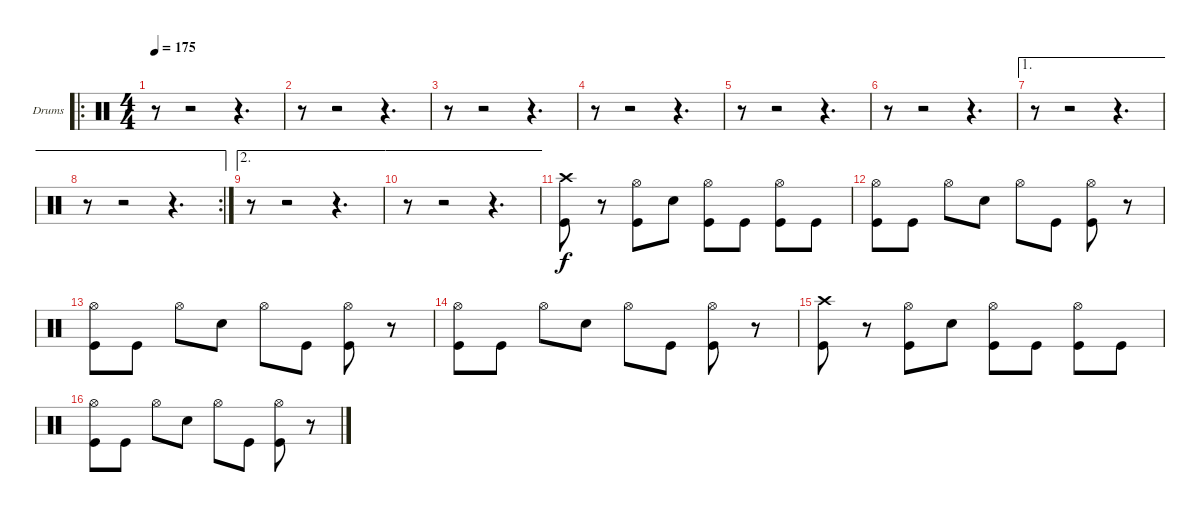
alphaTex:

\bracketExtendMode groupsimilarinstruments
\firstSystemTrackNameOrientation horizontal
\otherSystemsTrackNameOrientation horizontal
\track ("Drumkit" "Drums") {instrument percussion}
\staff {score}
\articulation defaults
\ro
\ts (4 4)
\tempo 175
\clef neutral
\ks c
r.8{dy fff} r.2 r.4{d} |
r.8 r.2 r.4{d} |
r.8 r.2 r.4{d} |
r.8 r.2 r.4{d} |
r.8 r.2 r.4{d} |
r.8 r.2 r.4{d} |
\ae 1
r.8 r.2 r.4{d} |
\ae 1
\rc 2
r.8 r.2 r.4{d} |
\ae 2
r.8 r.2 r.4{d} |
\ae 2
r.8 r.2 r.4{d} |
("Crash high (hit)" "Kick (hit)").8{dy f} r.8 ("Hi-Hat (open)" "Kick (hit)").8 "Snare (hit) 2".8 ("Hi-Hat (open)" "Kick (hit)").8 "Kick (hit)".8 ("Hi-Hat (open)" "Kick (hit)").8 "Kick (hit)".8 |
("Hi-Hat (open)" "Kick (hit)").8 "Kick (hit)".8 "Hi-Hat (open)".8 "Snare (hit) 2".8 "Hi-Hat (open)".8 "Kick (hit)".8 ("Hi-Hat (open)" "Kick (hit)").8 r.8 |
("Hi-Hat (open)" "Kick (hit)").8 "Kick (hit)".8 "Hi-Hat (open)".8 "Snare (hit) 2".8 "Hi-Hat (open)".8 "Kick (hit)".8 ("Hi-Hat (open)" "Kick (hit)").8 r.8 |
("Hi-Hat (open)" "Kick (hit)").8 "Kick (hit)".8 "Hi-Hat (open)".8 "Snare (hit) 2".8 "Hi-Hat (open)".8 "Kick (hit)".8 ("Hi-Hat (open)" "Kick (hit)").8 r.8 |
("Crash high (hit)" "Kick (hit)").8 r.8 ("Hi-Hat (open)" "Kick (hit)").8 "Snare (hit) 2".8 ("Hi-Hat (open)" "Kick (hit)").8 "Kick (hit)".8 ("Hi-Hat (open)" "Kick (hit)").8 "Kick (hit)".8 |
("Hi-Hat (open)" "Kick (hit)").8 "Kick (hit)".8 "Hi-Hat (open)".8 "Snare (hit) 2".8 "Hi-Hat (open)".8 "Kick (hit)".8 ("Hi-Hat (open)" "Kick (hit)").8 r.8
